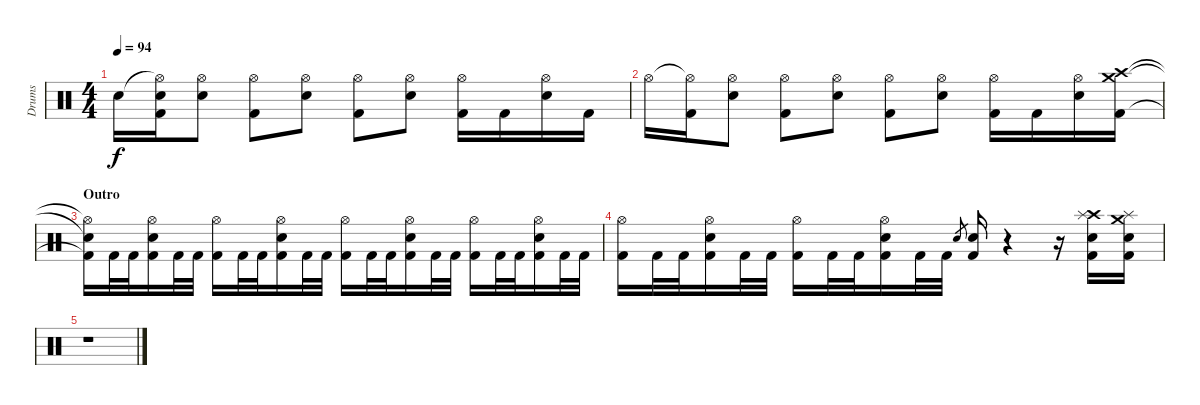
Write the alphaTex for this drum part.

\track ("Drums" "Drums") {instrument percussion}
\staff {score}
\articulation defaults
\ts (4 4)
\tempo 94
\clef neutral
\ks c "Snare (hit)"{t}.16{dy f}
("Hi-Hat (open)"{t} "Snare (hit)"{t} "Kick (hit) 2").16 ("Hi-Hat (open)" "Electric Snare (hit)").8 ("Hi-Hat (open)" "Kick (hit) 2").8 ("Hi-Hat (open)" "Electric Snare (hit)").8 ("Hi-Hat (open)" "Kick (hit) 2").8 ("Hi-Hat (open)" "Electric Snare (hit)").8 ("Hi-Hat (open)" "Kick (hit) 2").16 "Kick (hit) 2".16 ("Hi-Hat (open)" "Electric Snare (hit)").16 "Kick (hit) 2".16 |
"Hi-Hat (open)".16 ("Hi-Hat (open)"{t} "Kick (hit) 2").16 ("Hi-Hat (open)" "Electric Snare (hit)").8 ("Hi-Hat (open)" "Kick (hit) 2").8 ("Hi-Hat (open)" "Electric Snare (hit)").8 ("Hi-Hat (open)" "Kick (hit) 2").8 ("Hi-Hat (open)" "Electric Snare (hit)").8 ("Hi-Hat (open)" "Kick (hit) 2").16 "Kick (hit) 2".16 ("Hi-Hat (open)" "Electric Snare (hit)").16 ("Crash high (hit)" "Crash medium (hit)" "Kick (hit) 2").16 |
\section ("" "Outro")
("Hi-Hat (open)"{t} "Snare (hit)"{t} "Kick (hit) 2"{t}).16 "Kick (hit) 2".32 "Kick (hit) 2".32 ("Hi-Hat (open)" "Electric Snare (hit)" "Kick (hit) 2").16 "Kick (hit) 2".32 "Kick (hit) 2".32 ("Hi-Hat (open)" "Kick (hit) 2").16 "Kick (hit) 2".32 "Kick (hit) 2".32 ("Hi-Hat (open)" "Electric Snare (hit)" "Kick (hit) 2").16 "Kick (hit) 2".32 "Kick (hit) 2".32 ("Hi-Hat (open)" "Kick (hit) 2").16 "Kick (hit) 2".32 "Kick (hit) 2".32 ("Hi-Hat (open)" "Electric Snare (hit)" "Kick (hit) 2").16 "Kick (hit) 2".32 "Kick (hit) 2".32 ("Hi-Hat (open)" "Kick (hit) 2").16 "Kick (hit) 2".32 "Kick (hit) 2".32 ("Hi-Hat (open)" "Electric Snare (hit)" "Kick (hit) 2").16 "Kick (hit) 2".32 "Kick (hit) 2".32 |
("Hi-Hat (open)" "Kick (hit) 2").16 "Kick (hit) 2".32 "Kick (hit) 2".32 ("Hi-Hat (open)" "Electric Snare (hit)" "Kick (hit) 2").16 "Kick (hit) 2".32 "Kick (hit) 2".32 ("Hi-Hat (open)" "Kick (hit) 2").16 "Kick (hit) 2".32 "Kick (hit) 2".32 ("Hi-Hat (open)" "Electric Snare (hit)" "Kick (hit) 2").16 "Kick (hit) 2".32 "Kick (hit) 2".32 "Electric Snare (hit)".8{gr} ("Electric Snare (hit)" "Kick (hit) 2").16 r.4 r.16 ("Crash high (hit)" "Splash (hit)" "Electric Snare (hit)" "Kick (hit) 2").16 ("Crash medium (hit)" "Splash (hit)" "Electric Snare (hit)" "Kick (hit) 2").16 |
r.1
